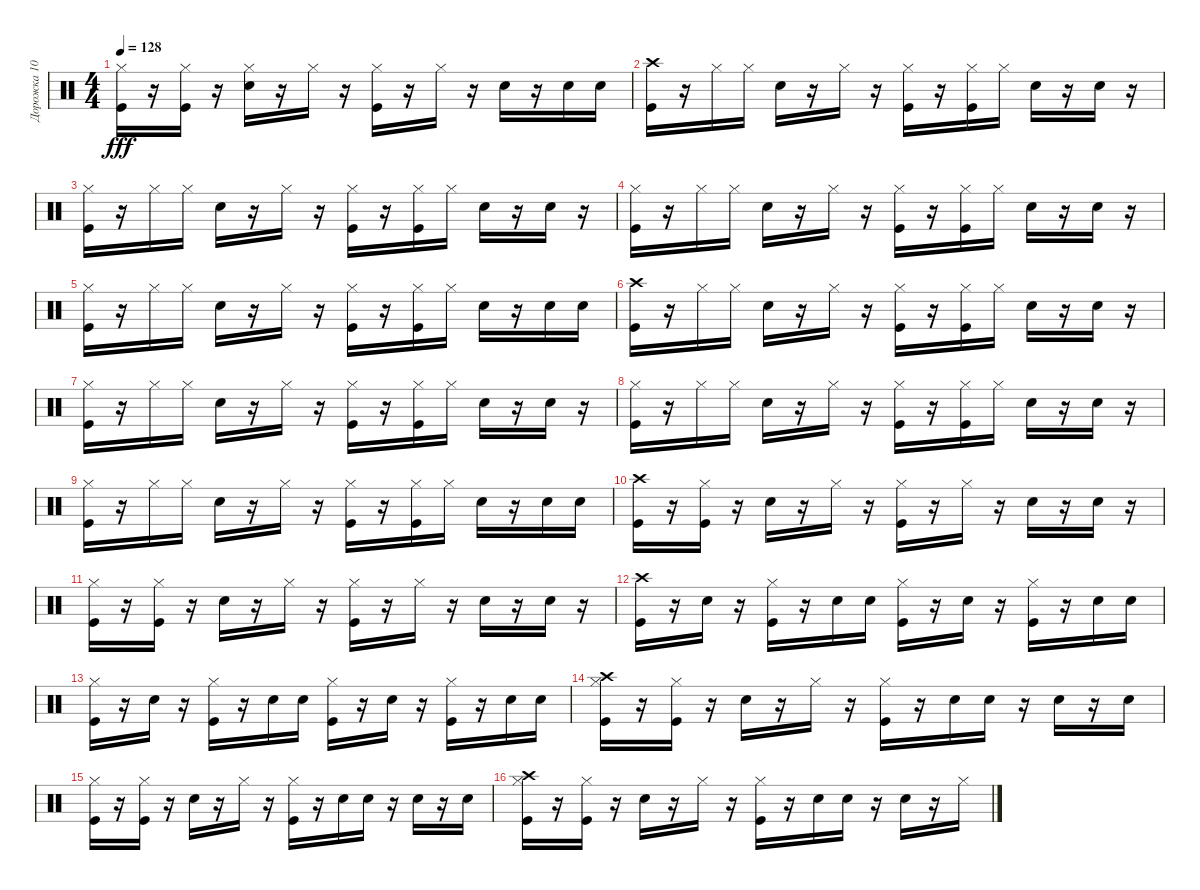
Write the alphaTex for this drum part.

\track ("Дорожка 10" "Дорожка 10") {instrument percussion}
\staff {score}
\articulation defaults
\ts (4 4)
\tempo 128
\clef neutral
\ks c
("Kick (hit)" "Hi-Hat (closed)").16{dy fff} r.16 ("Kick (hit)" "Hi-Hat (closed)").16 r.16 ("Electric Snare (hit)" "Hi-Hat (closed)").16 r.16 "Hi-Hat (closed)".16 r.16 ("Hi-Hat (closed)" "Kick (hit)").16 r.16 "Hi-Hat (closed)".16 r.16 "Electric Snare (hit)".16 r.16 "Electric Snare (hit)".16 "Electric Snare (hit)".16 |
("Kick (hit)" "Crash high (hit)").16 r.16 "Hi-Hat (closed)".16 "Hi-Hat (closed)".16 "Electric Snare (hit)".16 r.16 "Hi-Hat (closed)".16 r.16 ("Kick (hit)" "Hi-Hat (closed)").16 r.16 ("Kick (hit)" "Hi-Hat (closed)").16 "Hi-Hat (closed)".16 "Electric Snare (hit)".16 r.16 "Electric Snare (hit)".16 r.16 |
("Hi-Hat (closed)" "Kick (hit)").16 r.16 "Hi-Hat (closed)".16 "Hi-Hat (closed)".16 "Electric Snare (hit)".16 r.16 "Hi-Hat (closed)".16 r.16 ("Hi-Hat (closed)" "Kick (hit)").16 r.16 ("Hi-Hat (closed)" "Kick (hit)").16 "Hi-Hat (closed)".16 "Electric Snare (hit)".16 r.16 "Electric Snare (hit)".16 r.16 |
("Hi-Hat (closed)" "Kick (hit)").16 r.16 "Hi-Hat (closed)".16 "Hi-Hat (closed)".16 "Electric Snare (hit)".16 r.16 "Hi-Hat (closed)".16 r.16 ("Kick (hit)" "Hi-Hat (closed)").16 r.16 ("Hi-Hat (closed)" "Kick (hit)").16 "Hi-Hat (closed)".16 "Electric Snare (hit)".16 r.16 "Electric Snare (hit)".16 r.16 |
("Kick (hit)" "Hi-Hat (closed)").16 r.16 "Hi-Hat (closed)".16 "Hi-Hat (closed)".16 "Electric Snare (hit)".16 r.16 "Hi-Hat (closed)".16 r.16 ("Hi-Hat (closed)" "Kick (hit)").16 r.16 ("Kick (hit)" "Hi-Hat (closed)").16 "Hi-Hat (closed)".16 "Electric Snare (hit)".16 r.16 "Electric Snare (hit)".16 "Electric Snare (hit)".16 |
("Kick (hit)" "Crash high (hit)").16 r.16 "Hi-Hat (closed)".16 "Hi-Hat (closed)".16 "Electric Snare (hit)".16 r.16 "Hi-Hat (closed)".16 r.16 ("Kick (hit)" "Hi-Hat (closed)").16 r.16 ("Hi-Hat (closed)" "Kick (hit)").16 "Hi-Hat (closed)".16 "Electric Snare (hit)".16 r.16 "Electric Snare (hit)".16 r.16 |
("Hi-Hat (closed)" "Kick (hit)").16 r.16 "Hi-Hat (closed)".16 "Hi-Hat (closed)".16 "Electric Snare (hit)".16 r.16 "Hi-Hat (closed)".16 r.16 ("Hi-Hat (closed)" "Kick (hit)").16 r.16 ("Hi-Hat (closed)" "Kick (hit)").16 "Hi-Hat (closed)".16 "Electric Snare (hit)".16 r.16 "Electric Snare (hit)".16 r.16 |
("Kick (hit)" "Hi-Hat (closed)").16 r.16 "Hi-Hat (closed)".16 "Hi-Hat (closed)".16 "Electric Snare (hit)".16 r.16 "Hi-Hat (closed)".16 r.16 ("Kick (hit)" "Hi-Hat (closed)").16 r.16 ("Kick (hit)" "Hi-Hat (closed)").16 "Hi-Hat (closed)".16 "Electric Snare (hit)".16 r.16 "Electric Snare (hit)".16 r.16 |
("Hi-Hat (closed)" "Kick (hit)").16 r.16 "Hi-Hat (closed)".16 "Hi-Hat (closed)".16 "Electric Snare (hit)".16 r.16 "Hi-Hat (closed)".16 r.16 ("Kick (hit)" "Hi-Hat (closed)").16 r.16 ("Hi-Hat (closed)" "Kick (hit)").16 "Hi-Hat (closed)".16 "Electric Snare (hit)".16 r.16 "Electric Snare (hit)".16 "Electric Snare (hit)".16 |
("Crash high (hit)" "Kick (hit)").16 r.16 ("Kick (hit)" "Hi-Hat (closed)").16 r.16 "Electric Snare (hit)".16 r.16 "Hi-Hat (closed)".16 r.16 ("Kick (hit)" "Hi-Hat (closed)").16 r.16 "Hi-Hat (closed)".16 r.16 "Electric Snare (hit)".16 r.16 "Electric Snare (hit)".16 r.16 |
("Hi-Hat (closed)" "Kick (hit)").16 r.16 ("Kick (hit)" "Hi-Hat (closed)").16 r.16 "Electric Snare (hit)".16 r.16 "Hi-Hat (closed)".16 r.16 ("Kick (hit)" "Hi-Hat (closed)").16 r.16 "Hi-Hat (closed)".16 r.16 "Electric Snare (hit)".16 r.16 "Electric Snare (hit)".16 r.16 |
("Crash high (hit)" "Kick (hit)").16 r.16 "Electric Snare (hit)".16 r.16 ("Kick (hit)" "Hi-Hat (closed)").16 r.16 "Electric Snare (hit)".16 "Electric Snare (hit)".16 ("Kick (hit)" "Hi-Hat (closed)").16 r.16 "Electric Snare (hit)".16 r.16 ("Kick (hit)" "Hi-Hat (closed)").16 r.16 "Electric Snare (hit)".16 "Electric Snare (hit)".16 |
("Kick (hit)" "Hi-Hat (closed)").16 r.16 "Electric Snare (hit)".16 r.16 ("Kick (hit)" "Hi-Hat (closed)").16 r.16 "Electric Snare (hit)".16 "Electric Snare (hit)".16 ("Kick (hit)" "Hi-Hat (closed)").16 r.16 "Electric Snare (hit)".16 r.16 ("Kick (hit)" "Hi-Hat (closed)").16 r.16 "Electric Snare (hit)".16 "Electric Snare (hit)".16 |
("Crash high (hit)" "Kick (hit)" "Hi-Hat (closed)").16 r.16 ("Kick (hit)" "Hi-Hat (closed)").16 r.16 "Electric Snare (hit)".16 r.16 "Hi-Hat (closed)".16 r.16 ("Kick (hit)" "Hi-Hat (closed)").16 r.16 "Electric Snare (hit)".16 "Electric Snare (hit)".16 r.16 "Electric Snare (hit)".16 r.16 "Electric Snare (hit)".16 |
("Kick (hit)" "Hi-Hat (closed)").16 r.16 ("Kick (hit)" "Hi-Hat (closed)").16 r.16 "Electric Snare (hit)".16 r.16 "Hi-Hat (closed)".16 r.16 ("Kick (hit)" "Hi-Hat (closed)").16 r.16 "Electric Snare (hit)".16 "Electric Snare (hit)".16 r.16 "Electric Snare (hit)".16 r.16 "Electric Snare (hit)".16 |
("Crash high (hit)" "Kick (hit)" "Hi-Hat (closed)").16 r.16 ("Kick (hit)" "Hi-Hat (closed)").16 r.16 "Electric Snare (hit)".16 r.16 "Hi-Hat (closed)".16 r.16 ("Kick (hit)" "Hi-Hat (closed)").16 r.16 "Electric Snare (hit)".16 "Electric Snare (hit)".16 r.16 "Electric Snare (hit)".16 r.16 "Hi-Hat (closed)".16
